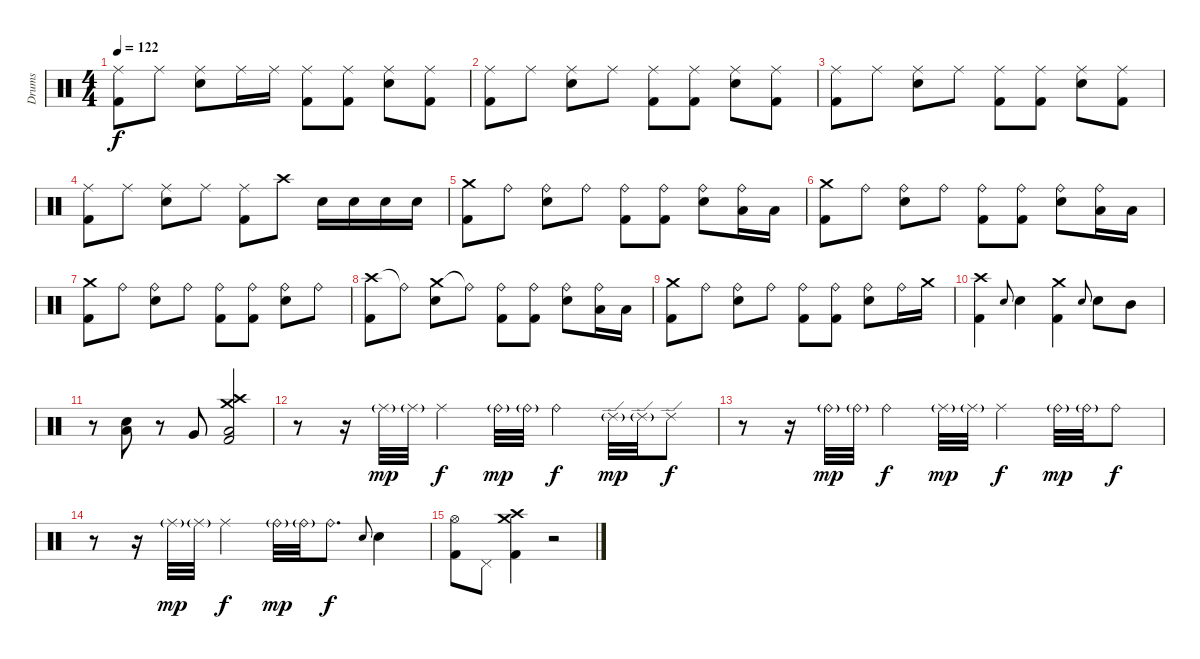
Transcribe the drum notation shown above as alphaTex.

\track ("Drums" "Drums") {instrument percussion}
\staff {score}
\articulation defaults
\ts (4 4)
\tempo 122
\clef neutral
\ks c
("Ride (middle)" "Kick (hit) 2").8{dy f} "Ride (middle)".8 ("Ride (middle)" "Snare (hit) 2").8 "Ride (middle)".16 "Ride (middle)".16 ("Ride (middle)" "Kick (hit) 2").8 ("Ride (middle)" "Kick (hit) 2").8 ("Ride (middle)" "Snare (hit) 2").8 ("Ride (middle)" "Kick (hit) 2").8 |
("Ride (middle)" "Kick (hit) 2").8 "Ride (middle)".8 ("Ride (middle)" "Snare (hit) 2").8 "Ride (middle)".8 ("Ride (middle)" "Kick (hit) 2").8 ("Ride (middle)" "Kick (hit) 2").8 ("Ride (middle)" "Snare (hit) 2").8 ("Ride (middle)" "Kick (hit) 2").8 |
("Ride (middle)" "Kick (hit) 2").8 "Ride (middle)".8 ("Ride (middle)" "Snare (hit) 2").8 "Ride (middle)".8 ("Ride (middle)" "Kick (hit) 2").8 ("Ride (middle)" "Kick (hit) 2").8 ("Ride (middle)" "Snare (hit) 2").8 ("Ride (middle)" "Kick (hit) 2").8 |
("Ride (middle)" "Kick (hit) 2").8 "Ride (middle)".8 ("Ride (middle)" "Snare (hit) 2").8 "Ride (middle)".8 ("Ride (middle)" "Kick (hit) 2").8 "Crash high (hit)".8 "Snare (hit) 2".16 "Snare (hit) 2".16 "Snare (hit) 2".16 "Snare (hit) 2".16 |
("Crash medium (hit)" "Kick (hit) 2").8 "Ride (bell)".8 ("Ride (bell)" "Snare (hit) 2").8 "Ride (bell)".8 ("Ride (bell)" "Kick (hit) 2").8 ("Ride (bell)" "Kick (hit) 2").8 ("Ride (bell)" "Snare (hit) 2").8 ("Ride (bell)" "Low Tom (hit)").16 "Low Tom (hit)".16 |
("Crash medium (hit)" "Kick (hit) 2").8 "Ride (bell)".8 ("Ride (bell)" "Snare (hit) 2").8 "Ride (bell)".8 ("Ride (bell)" "Kick (hit) 2").8 ("Ride (bell)" "Kick (hit) 2").8 ("Ride (bell)" "Snare (hit) 2").8 ("Ride (bell)" "Low Tom (hit)").16 "Low Tom (hit)".16 |
("Crash medium (hit)" "Kick (hit) 2").8 "Ride (bell)".8 ("Ride (bell)" "Snare (hit) 2").8 "Ride (bell)".8 ("Ride (bell)" "Kick (hit) 2").8 ("Ride (bell)" "Kick (hit) 2").8 ("Ride (bell)" "Snare (hit) 2").8 "Ride (bell)".8 |
("Crash high (hit)" "Kick (hit) 2").8 "Ride (bell)"{t}.8 ("Crash medium (hit)" "Snare (hit) 2").8 "Ride (bell)"{t}.8 ("Ride (bell)" "Kick (hit) 2").8 ("Ride (bell)" "Kick (hit) 2").8 ("Ride (bell)" "Snare (hit) 2").8 ("Ride (bell)" "Low Tom (hit)").16 "Low Tom (hit)".16 |
("Crash medium (hit)" "Kick (hit) 2").8 "Ride (bell)".8 ("Ride (bell)" "Snare (hit) 2").8 "Ride (bell)".8 ("Ride (bell)" "Kick (hit) 2").8 ("Ride (bell)" "Kick (hit) 2").8 ("Ride (bell)" "Snare (hit) 2").8 "Ride (bell)".16 "Crash medium (hit)".16 |
("Crash high (hit)" "Kick (hit) 2").4 "Snare (hit) 2".8{gr onbeat} "Snare (hit) 2".4 ("Crash medium (hit)" "Kick (hit) 2").4 "Snare (hit) 2".8{gr onbeat} "Snare (hit) 2".8 "Mid Tom (hit)".8 |
r.8 ("Snare (hit) 2" "Low Tom (hit)").8 r.8 "Very Low Tom (hit)".8 ("Crash high (hit)" "Crash medium (hit)" "Low Floor Tom (hit)" "Kick (hit) 2").2 |
r.8 r.16 "Ride (middle)"{g}.32{dy mp} "Ride (middle)"{g}.32 "Ride (middle)".4{dy f} "Ride (bell)"{g}.32{dy mp} "Ride (bell)"{g}.32 "Ride (bell)".4{dy f} "Ride (edge) 2"{g}.32{dy mp} "Ride (edge) 2"{g}.32 "Ride (edge) 2".8{dy f} |
r.8 r.16 "Ride (bell)"{g}.32{dy mp} "Ride (bell)"{g}.32 "Ride (bell)".4{dy f} "Ride (middle)"{g}.32{dy mp} "Ride (middle)"{g}.32 "Ride (middle)".4{dy f} "Ride (bell)"{g}.32{dy mp} "Ride (bell)"{g}.32 "Ride (bell)".8{dy f} |
r.8 r.16 "Ride (middle)"{g}.32{dy mp} "Ride (middle)"{g}.32 "Ride (middle)".4{dy f} "Ride (bell)"{g}.32{dy mp} "Ride (bell)"{g}.32 "Ride (bell)".8{d dy f} "Snare (hit) 2".8{gr onbeat} "Snare (hit) 2".4 |
("Hi-Hat (open)" "Kick (hit) 2").8 "Pedal Hi-Hat (hit)".8 ("Crash medium (hit)" "Crash high (hit)" "Kick (hit) 2").4 r.2
